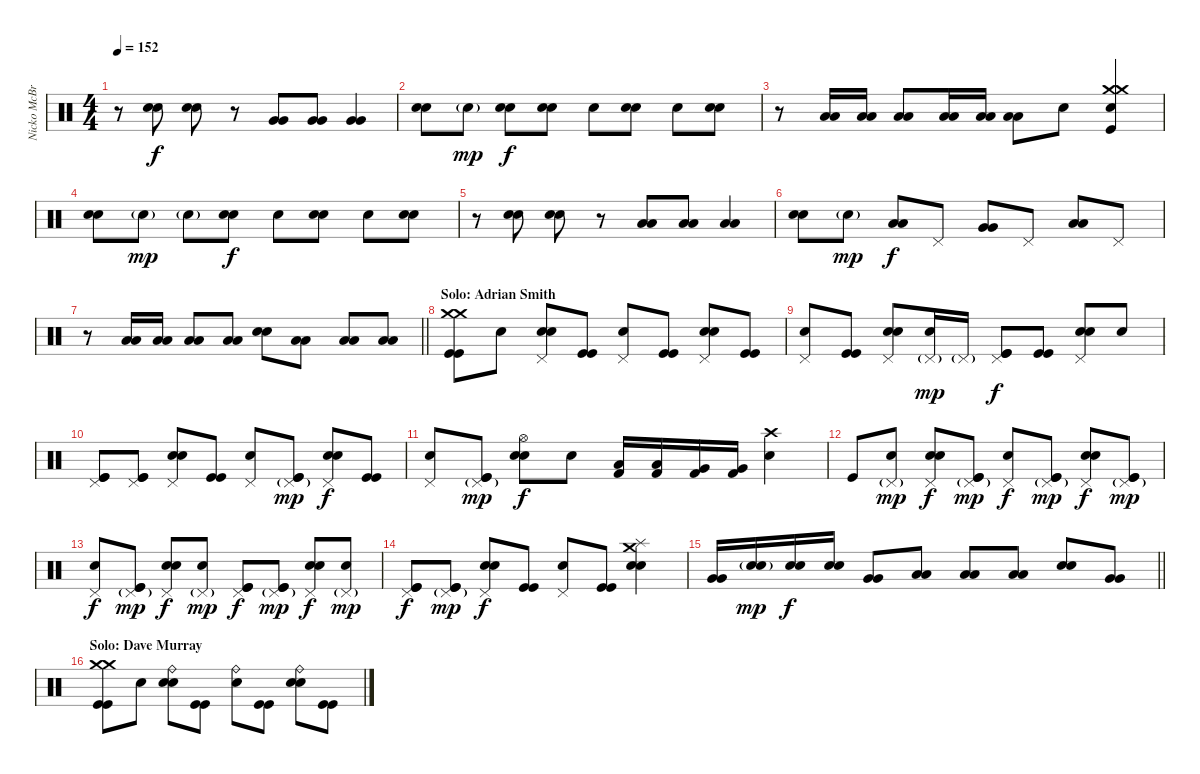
\track ("Nicko McBrain" "Nicko McBr") {instrument percussion}
\staff {score}
\articulation defaults
\ts (4 4)
\tempo 152
\clef neutral
\ks c
r.8{dy f} ("Electric Snare (hit)" "Electric Snare (hit)").8 ("Electric Snare (hit)" "Electric Snare (hit)").8 r.8 ("Very Low Tom (hit)" "Very Low Tom (hit)").8 ("Very Low Tom (hit)" "Very Low Tom (hit)").8 ("Very Low Tom (hit)" "Very Low Tom (hit)").4 |
("Electric Snare (hit)" "Electric Snare (hit)").8 "Electric Snare (hit)"{g}.8{dy mp} ("Electric Snare (hit)" "Electric Snare (hit)").8{dy f} ("Electric Snare (hit)" "Electric Snare (hit)").8 "Snare (hit)".8 ("Electric Snare (hit)" "Electric Snare (hit)").8 "Snare (hit)".8 ("Electric Snare (hit)" "Electric Snare (hit)").8 |
r.8 ("Low Tom (hit)" "Low Tom (hit)").16 ("Low Tom (hit)" "Low Tom (hit)").16 ("Low Tom (hit)" "Low Tom (hit)").8 ("Low Tom (hit)" "Low Tom (hit)").16 ("Low Tom (hit)" "Low Tom (hit)").16 ("Low Tom (hit)" "Low Tom (hit)").8 "Snare (hit)".8 ("Crash medium (hit)" "Crash medium (hit)" "Electric Snare (hit)" "Kick (hit)").4 |
("Electric Snare (hit)" "Electric Snare (hit)").8 "Electric Snare (hit)"{g}.8{dy mp} "Electric Snare (hit)"{g}.8 ("Electric Snare (hit)" "Electric Snare (hit)").8{dy f} "Snare (hit)".8 ("Electric Snare (hit)" "Electric Snare (hit)").8 "Snare (hit)".8 ("Electric Snare (hit)" "Electric Snare (hit)").8 |
r.8 ("Electric Snare (hit)" "Electric Snare (hit)").8 ("Electric Snare (hit)" "Electric Snare (hit)").8 r.8 ("Low Tom (hit)" "Low Tom (hit)").8 ("Low Tom (hit)" "Low Tom (hit)").8 ("Low Tom (hit)" "Low Tom (hit)").4 |
("Electric Snare (hit)" "Electric Snare (hit)").8 "Electric Snare (hit)"{g}.8{dy mp} ("Low Tom (hit)" "Low Tom (hit)").8{dy f} "Pedal Hi-Hat (hit)".8 ("Very Low Tom (hit)" "Very Low Tom (hit)").8 "Pedal Hi-Hat (hit)".8 ("Low Floor Tom (hit)" "Low Floor Tom (hit)").8 "Pedal Hi-Hat (hit)".8 |
\barLineRight lightlight
r.8 ("Low Tom (hit)" "Low Tom (hit)").16 ("Low Tom (hit)" "Low Tom (hit)").16 ("Low Tom (hit)" "Low Tom (hit)").8 ("Low Tom (hit)" "Low Tom (hit)").8 ("Electric Snare (hit)" "Electric Snare (hit)").8 ("Low Floor Tom (hit)" "Low Floor Tom (hit)").8 ("Low Floor Tom (hit)" "Low Floor Tom (hit)").8 ("Low Floor Tom (hit)" "Low Floor Tom (hit)").8 |
\section ("" "Solo: Adrian Smith")
("Crash medium (hit)" "Crash medium (hit)" "Kick (hit)" "Kick (hit)").8 "Snare (hit)".8 ("Pedal Hi-Hat (hit)" "Electric Snare (hit)" "Electric Snare (hit)").8 ("Kick (hit)" "Kick (hit)").8 ("Pedal Hi-Hat (hit)" "Snare (hit)").8 ("Kick (hit)" "Kick (hit)").8 ("Pedal Hi-Hat (hit)" "Electric Snare (hit)" "Electric Snare (hit)").8 ("Kick (hit)" "Kick (hit)").8 |
("Pedal Hi-Hat (hit)" "Snare (hit)").8 ("Kick (hit)" "Kick (hit)").8 ("Pedal Hi-Hat (hit)" "Electric Snare (hit)" "Electric Snare (hit)").8 ("Pedal Hi-Hat (hit)"{g} "Snare (hit)").16{dy mp} "Pedal Hi-Hat (hit)"{g}.16 ("Pedal Hi-Hat (hit)" "Kick (hit)" "Kick (hit)").8{dy f} ("Kick (hit)" "Kick (hit)").8 ("Pedal Hi-Hat (hit)" "Electric Snare (hit)" "Electric Snare (hit)").8 "Snare (hit)".8 |
("Pedal Hi-Hat (hit)" "Kick (hit)" "Kick (hit)").8 ("Pedal Hi-Hat (hit)" "Kick (hit)" "Kick (hit)").8 ("Pedal Hi-Hat (hit)" "Electric Snare (hit)" "Electric Snare (hit)").8 ("Kick (hit)" "Kick (hit)").8 ("Pedal Hi-Hat (hit)" "Snare (hit)").8 ("Pedal Hi-Hat (hit)"{g} "Kick (hit)" "Kick (hit)").8{dy mp} ("Pedal Hi-Hat (hit)" "Electric Snare (hit)" "Electric Snare (hit)").8{dy f} ("Kick (hit)" "Kick (hit)").8 |
("Pedal Hi-Hat (hit)" "Snare (hit)").8 ("Pedal Hi-Hat (hit)"{g} "Kick (hit)" "Kick (hit)").8{dy mp} ("Hi-Hat (open)" "Electric Snare (hit)" "Electric Snare (hit)").8{dy f} "Snare (hit)".8 ("Low Tom (hit)" "Kick (hit) 2").16 ("Low Tom (hit)" "Kick (hit) 2").16 ("Very Low Tom (hit)" "Kick (hit) 2").16 ("Very Low Tom (hit)" "Kick (hit) 2").16 ("Crash high (hit)" "Electric Snare (hit)").4 |
"Kick (hit)".8 ("Pedal Hi-Hat (hit)"{g} "Snare (hit)").8{dy mp} ("Pedal Hi-Hat (hit)" "Electric Snare (hit)" "Electric Snare (hit)").8{dy f} ("Pedal Hi-Hat (hit)"{g} "Kick (hit)" "Kick (hit)").8{dy mp} ("Pedal Hi-Hat (hit)" "Snare (hit)").8{dy f} ("Pedal Hi-Hat (hit)"{g} "Kick (hit)" "Kick (hit)").8{dy mp} ("Pedal Hi-Hat (hit)" "Electric Snare (hit)" "Electric Snare (hit)").8{dy f} ("Pedal Hi-Hat (hit)"{g} "Kick (hit)" "Kick (hit)").8{dy mp} |
("Pedal Hi-Hat (hit)" "Snare (hit)").8{dy f} ("Pedal Hi-Hat (hit)"{g} "Kick (hit)" "Kick (hit)").8{dy mp} ("Pedal Hi-Hat (hit)" "Electric Snare (hit)" "Electric Snare (hit)").8{dy f} ("Pedal Hi-Hat (hit)"{g} "Snare (hit)").8{dy mp} ("Pedal Hi-Hat (hit)" "Kick (hit)" "Kick (hit)").8{dy f} ("Pedal Hi-Hat (hit)"{g} "Kick (hit)" "Kick (hit)").8{dy mp} ("Pedal Hi-Hat (hit)" "Electric Snare (hit)" "Electric Snare (hit)").8{dy f} ("Pedal Hi-Hat (hit)"{g} "Snare (hit)").8{dy mp} |
("Pedal Hi-Hat (hit)" "Kick (hit)" "Kick (hit)").8{dy f} ("Pedal Hi-Hat (hit)"{g} "Kick (hit)" "Kick (hit)").8{dy mp} ("Pedal Hi-Hat (hit)" "Electric Snare (hit)" "Electric Snare (hit)").8{dy f} ("Kick (hit)" "Kick (hit)").8 ("Pedal Hi-Hat (hit)" "Snare (hit)").8 ("Kick (hit)" "Kick (hit)").8 ("Crash medium (hit)" "Splash (hit)" "Electric Snare (hit)" "Electric Snare (hit)").4 |
\barLineRight lightlight
("Very Low Tom (hit)" "Very Low Tom (hit)").16 ("Electric Snare (hit)"{g} "Electric Snare (hit)"{g}).16{dy mp} ("Electric Snare (hit)" "Electric Snare (hit)").16{dy f} ("Electric Snare (hit)" "Electric Snare (hit)").16 ("Very Low Tom (hit)" "Very Low Tom (hit)").8 ("Low Tom (hit)" "Low Tom (hit)").8 ("Low Tom (hit)" "Low Tom (hit)").8 ("Low Tom (hit)" "Low Tom (hit)").8 ("Electric Snare (hit)" "Electric Snare (hit)").8 ("Very Low Tom (hit)" "Very Low Tom (hit)").8 |
\section ("" "Solo: Dave Murray")
("Crash medium (hit)" "Crash medium (hit)" "Kick (hit)" "Kick (hit)").8 "Snare (hit)".8 ("Ride (bell)" "Electric Snare (hit)" "Electric Snare (hit)").8 ("Kick (hit)" "Kick (hit)").8 ("Ride (bell)" "Snare (hit)").8 ("Kick (hit)" "Kick (hit)").8 ("Ride (bell)" "Electric Snare (hit)" "Electric Snare (hit)").8 ("Kick (hit)" "Kick (hit)").8
